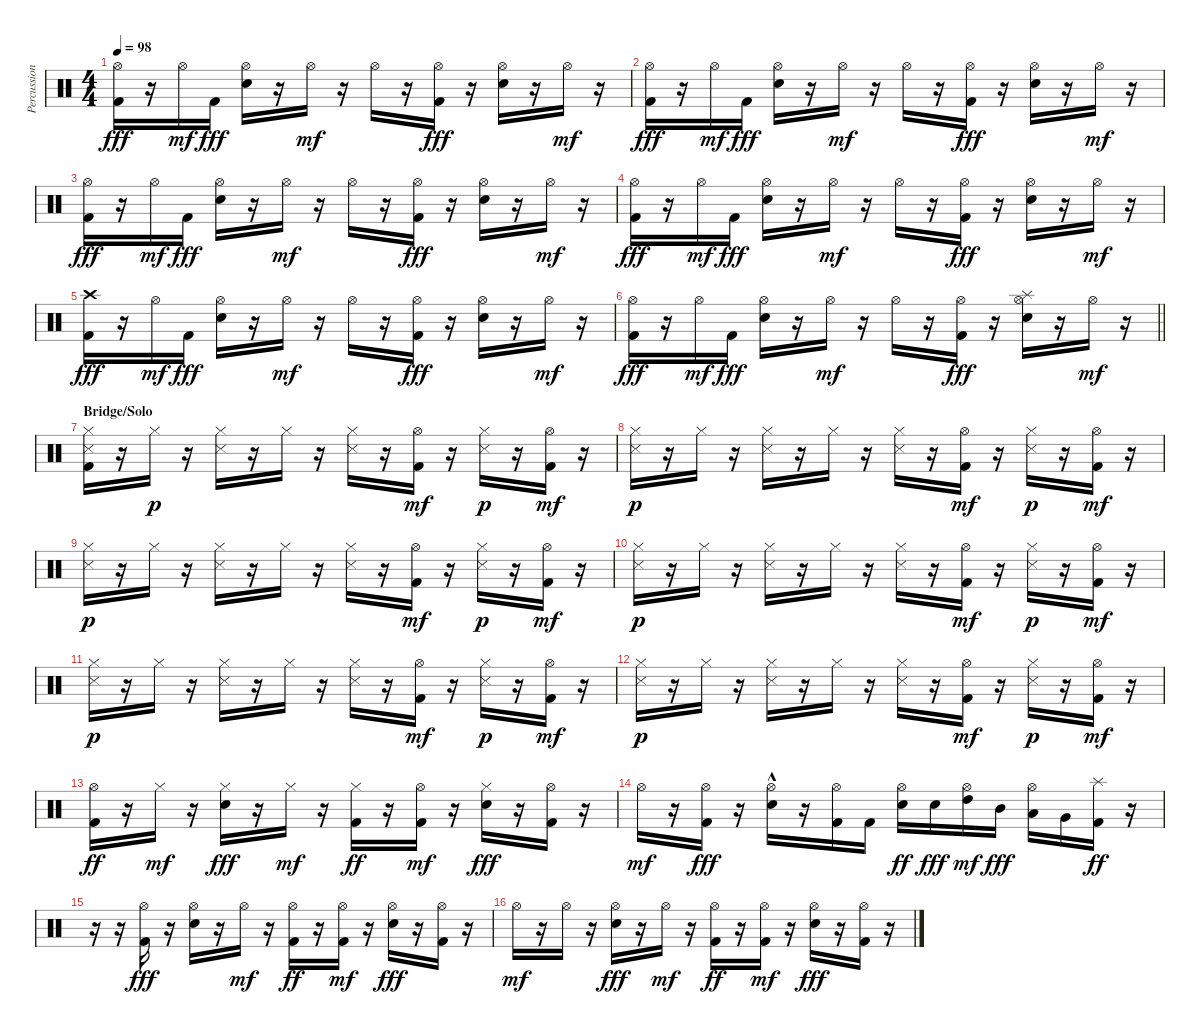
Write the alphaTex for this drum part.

\track ("Percussion" "Percussion") {instrument percussion}
\staff {score}
\articulation defaults
\ts (4 4)
\tempo 98
\clef neutral
\ks c
("Hi-Hat (open)" "Kick (hit) 2").16{dy fff} r.16 "Hi-Hat (open)".16{dy mf} "Kick (hit) 2".16{dy fff} ("Hi-Hat (open)" "Electric Snare (hit)").16 r.16 "Hi-Hat (open)".16{dy mf} r.16 "Hi-Hat (open)".16 r.16 ("Hi-Hat (open)" "Kick (hit) 2").16{dy fff} r.16 ("Hi-Hat (open)" "Electric Snare (hit)").16 r.16 "Hi-Hat (open)".16{dy mf} r.16 |
("Hi-Hat (open)" "Kick (hit) 2").16{dy fff} r.16 "Hi-Hat (open)".16{dy mf} "Kick (hit) 2".16{dy fff} ("Hi-Hat (open)" "Electric Snare (hit)").16 r.16 "Hi-Hat (open)".16{dy mf} r.16 "Hi-Hat (open)".16 r.16 ("Hi-Hat (open)" "Kick (hit) 2").16{dy fff} r.16 ("Hi-Hat (open)" "Electric Snare (hit)").16 r.16 "Hi-Hat (open)".16{dy mf} r.16 |
("Hi-Hat (open)" "Kick (hit) 2").16{dy fff} r.16 "Hi-Hat (open)".16{dy mf} "Kick (hit) 2".16{dy fff} ("Hi-Hat (open)" "Electric Snare (hit)").16 r.16 "Hi-Hat (open)".16{dy mf} r.16 "Hi-Hat (open)".16 r.16 ("Hi-Hat (open)" "Kick (hit) 2").16{dy fff} r.16 ("Hi-Hat (open)" "Electric Snare (hit)").16 r.16 "Hi-Hat (open)".16{dy mf} r.16 |
("Hi-Hat (open)" "Kick (hit) 2").16{dy fff} r.16 "Hi-Hat (open)".16{dy mf} "Kick (hit) 2".16{dy fff} ("Hi-Hat (open)" "Electric Snare (hit)").16 r.16 "Hi-Hat (open)".16{dy mf} r.16 "Hi-Hat (open)".16 r.16 ("Hi-Hat (open)" "Kick (hit) 2").16{dy fff} r.16 ("Hi-Hat (open)" "Electric Snare (hit)").16 r.16 "Hi-Hat (open)".16{dy mf} r.16 |
("Crash high (hit)" "Kick (hit) 2").16{dy fff} r.16 "Hi-Hat (open)".16{dy mf} "Kick (hit) 2".16{dy fff} ("Hi-Hat (open)" "Electric Snare (hit)").16 r.16 "Hi-Hat (open)".16{dy mf} r.16 "Hi-Hat (open)".16 r.16 ("Hi-Hat (open)" "Kick (hit) 2").16{dy fff} r.16 ("Hi-Hat (open)" "Electric Snare (hit)").16 r.16 "Hi-Hat (open)".16{dy mf} r.16 |
\barLineRight lightlight
("Hi-Hat (open)" "Kick (hit) 2").16{dy fff} r.16 "Hi-Hat (open)".16{dy mf} "Kick (hit) 2".16{dy fff} ("Hi-Hat (open)" "Electric Snare (hit)").16 r.16 "Hi-Hat (open)".16{dy mf} r.16 "Hi-Hat (open)".16 r.16 ("Hi-Hat (open)" "Kick (hit) 2").16{dy fff} r.16 ("Hi-Hat (open)" "Electric Snare (hit)" "Splash (hit)").16 r.16 "Hi-Hat (open)".16{dy mf} r.16 |
\section ("" "Bridge/Solo")
("Hi-Hat (closed)" "Kick (hit) 2" "Snare (side stick) 3").16 r.16 "Hi-Hat (closed)".16{dy p} r.16 ("Hi-Hat (closed)" "Snare (side stick) 3").16 r.16 "Hi-Hat (closed)".16 r.16 ("Hi-Hat (closed)" "Snare (side stick) 3").16 r.16 ("Hi-Hat (open)" "Kick (hit) 2").16{dy mf} r.16 ("Hi-Hat (closed)" "Snare (side stick) 3").16{dy p} r.16 ("Hi-Hat (open)" "Kick (hit) 2").16{dy mf} r.16 |
("Hi-Hat (closed)" "Snare (side stick) 3").16{dy p} r.16 "Hi-Hat (closed)".16 r.16 ("Hi-Hat (closed)" "Snare (side stick) 3").16 r.16 "Hi-Hat (closed)".16 r.16 ("Hi-Hat (closed)" "Snare (side stick) 3").16 r.16 ("Hi-Hat (open)" "Kick (hit) 2").16{dy mf} r.16 ("Hi-Hat (closed)" "Snare (side stick) 3").16{dy p} r.16 ("Hi-Hat (open)" "Kick (hit) 2").16{dy mf} r.16 |
("Hi-Hat (closed)" "Snare (side stick) 3").16{dy p} r.16 "Hi-Hat (closed)".16 r.16 ("Hi-Hat (closed)" "Snare (side stick) 3").16 r.16 "Hi-Hat (closed)".16 r.16 ("Hi-Hat (closed)" "Snare (side stick) 3").16 r.16 ("Hi-Hat (open)" "Kick (hit) 2").16{dy mf} r.16 ("Hi-Hat (closed)" "Snare (side stick) 3").16{dy p} r.16 ("Hi-Hat (open)" "Kick (hit) 2").16{dy mf} r.16 |
("Hi-Hat (closed)" "Snare (side stick) 3").16{dy p} r.16 "Hi-Hat (closed)".16 r.16 ("Hi-Hat (closed)" "Snare (side stick) 3").16 r.16 "Hi-Hat (closed)".16 r.16 ("Hi-Hat (closed)" "Snare (side stick) 3").16 r.16 ("Hi-Hat (open)" "Kick (hit) 2").16{dy mf} r.16 ("Hi-Hat (closed)" "Snare (side stick) 3").16{dy p} r.16 ("Hi-Hat (open)" "Kick (hit) 2").16{dy mf} r.16 |
("Hi-Hat (closed)" "Snare (side stick) 3").16{dy p} r.16 "Hi-Hat (closed)".16 r.16 ("Hi-Hat (closed)" "Snare (side stick) 3").16 r.16 "Hi-Hat (closed)".16 r.16 ("Hi-Hat (closed)" "Snare (side stick) 3").16 r.16 ("Hi-Hat (open)" "Kick (hit) 2").16{dy mf} r.16 ("Hi-Hat (closed)" "Snare (side stick) 3").16{dy p} r.16 ("Hi-Hat (open)" "Kick (hit) 2").16{dy mf} r.16 |
("Hi-Hat (closed)" "Snare (side stick) 3").16{dy p} r.16 "Hi-Hat (closed)".16 r.16 ("Hi-Hat (closed)" "Snare (side stick) 3").16 r.16 "Hi-Hat (closed)".16 r.16 ("Hi-Hat (closed)" "Snare (side stick) 3").16 r.16 ("Hi-Hat (open)" "Kick (hit) 2").16{dy mf} r.16 ("Hi-Hat (closed)" "Snare (side stick) 3").16{dy p} r.16 ("Hi-Hat (open)" "Kick (hit) 2").16{dy mf} r.16 |
("Hi-Hat (open)" "Kick (hit) 2").16{dy ff} r.16 "Hi-Hat (closed)".16{dy mf} r.16 ("Hi-Hat (closed)" "Electric Snare (hit)").16{dy fff} r.16 "Hi-Hat (closed)".16{dy mf} r.16 ("Hi-Hat (closed)" "Kick (hit) 2").16{dy ff} r.16 ("Hi-Hat (open)" "Kick (hit) 2").16{dy mf} r.16 ("Hi-Hat (closed)" "Electric Snare (hit)").16{dy fff} r.16 ("Hi-Hat (open)" "Kick (hit) 2").16 r.16 |
"Hi-Hat (open)".16{dy mf} r.16 ("Hi-Hat (open)" "Kick (hit) 2").16{dy fff} r.16 ("Hi-Hat (open)" "Electric Snare (hit)"{hac}).16 r.16 ("Hi-Hat (open)" "Kick (hit) 2").16 "Kick (hit) 2".16 ("Hi-Hat (open)" "Electric Snare (hit)").16{dy ff} "Electric Snare (hit)".16{dy fff} ("Hi-Hat (open)" "High Tom (hit)").16{dy mf} "Mid Tom (hit)".16{dy fff} ("Hi-Hat (open)" "Low Tom (hit)").16 "Very Low Tom (hit)".16 ("Splash (hit)" "Kick (hit) 2").16{dy ff} r.16 |
r.16 r.16 ("Hi-Hat (open)" "Kick (hit) 2").16{dy fff} r.16 ("Hi-Hat (open)" "Electric Snare (hit)").16 r.16 "Hi-Hat (open)".16{dy mf} r.16 ("Hi-Hat (open)" "Kick (hit) 2").16{dy ff} r.16 ("Hi-Hat (open)" "Kick (hit) 2").16{dy mf} r.16 ("Hi-Hat (open)" "Electric Snare (hit)").16{dy fff} r.16 ("Hi-Hat (open)" "Kick (hit) 2").16 r.16 |
"Hi-Hat (open)".16{dy mf} r.16 "Hi-Hat (open)".16 r.16 ("Hi-Hat (open)" "Electric Snare (hit)").16{dy fff} r.16 "Hi-Hat (open)".16{dy mf} r.16 ("Hi-Hat (open)" "Kick (hit) 2").16{dy ff} r.16 ("Hi-Hat (open)" "Kick (hit) 2").16{dy mf} r.16 ("Hi-Hat (open)" "Electric Snare (hit)").16{dy fff} r.16 ("Hi-Hat (open)" "Kick (hit) 2").16 r.16
